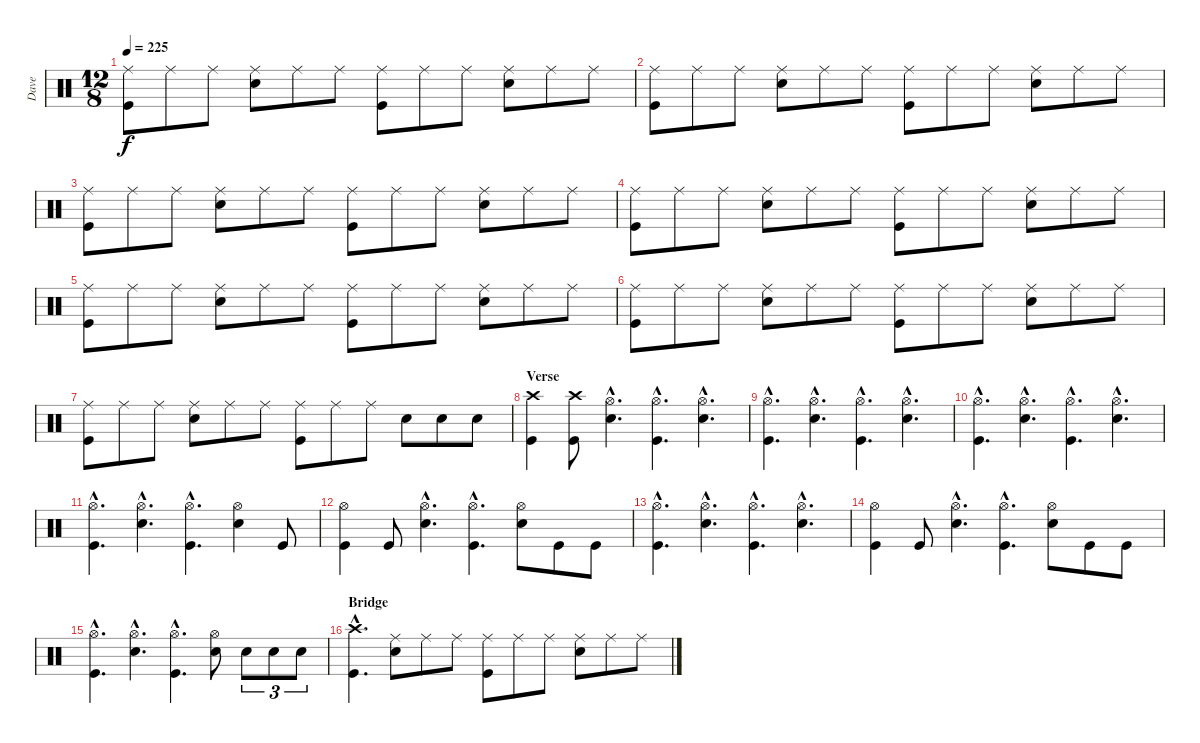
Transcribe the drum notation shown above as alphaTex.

\track ("Dave" "Dave") {instrument percussion}
\staff {score}
\articulation defaults
\ts (12 8)
\tempo 225
\clef neutral
\ks c
("Ride (middle)" "Kick (hit)").8{dy f} "Ride (middle)".8 "Ride (middle)".8 ("Ride (middle)" "Snare (hit) 2").8 "Ride (middle)".8 "Ride (middle)".8 ("Ride (middle)" "Kick (hit)").8 "Ride (middle)".8 "Ride (middle)".8 ("Ride (middle)" "Snare (hit) 2").8 "Ride (middle)".8 "Ride (middle)".8 |
("Ride (middle)" "Kick (hit)").8 "Ride (middle)".8 "Ride (middle)".8 ("Ride (middle)" "Snare (hit) 2").8 "Ride (middle)".8 "Ride (middle)".8 ("Ride (middle)" "Kick (hit)").8 "Ride (middle)".8 "Ride (middle)".8 ("Ride (middle)" "Snare (hit) 2").8 "Ride (middle)".8 "Ride (middle)".8 |
("Ride (middle)" "Kick (hit)").8 "Ride (middle)".8 "Ride (middle)".8 ("Ride (middle)" "Snare (hit) 2").8 "Ride (middle)".8 "Ride (middle)".8 ("Ride (middle)" "Kick (hit)").8 "Ride (middle)".8 "Ride (middle)".8 ("Ride (middle)" "Snare (hit) 2").8 "Ride (middle)".8 "Ride (middle)".8 |
("Ride (middle)" "Kick (hit)").8 "Ride (middle)".8 "Ride (middle)".8 ("Ride (middle)" "Snare (hit) 2").8 "Ride (middle)".8 "Ride (middle)".8 ("Ride (middle)" "Kick (hit)").8 "Ride (middle)".8 "Ride (middle)".8 ("Ride (middle)" "Snare (hit) 2").8 "Ride (middle)".8 "Ride (middle)".8 |
("Ride (middle)" "Kick (hit)").8 "Ride (middle)".8 "Ride (middle)".8 ("Ride (middle)" "Snare (hit) 2").8 "Ride (middle)".8 "Ride (middle)".8 ("Ride (middle)" "Kick (hit)").8 "Ride (middle)".8 "Ride (middle)".8 ("Ride (middle)" "Snare (hit) 2").8 "Ride (middle)".8 "Ride (middle)".8 |
("Ride (middle)" "Kick (hit)").8 "Ride (middle)".8 "Ride (middle)".8 ("Ride (middle)" "Snare (hit) 2").8 "Ride (middle)".8 "Ride (middle)".8 ("Ride (middle)" "Kick (hit)").8 "Ride (middle)".8 "Ride (middle)".8 ("Ride (middle)" "Snare (hit) 2").8 "Ride (middle)".8 "Ride (middle)".8 |
("Ride (middle)" "Kick (hit)").8 "Ride (middle)".8 "Ride (middle)".8 ("Ride (middle)" "Snare (hit) 2").8 "Ride (middle)".8 "Ride (middle)".8 ("Ride (middle)" "Kick (hit)").8 "Ride (middle)".8 "Ride (middle)".8 "Snare (hit) 2".8 "Snare (hit) 2".8 "Snare (hit) 2".8 |
\section ("" "Verse")
("Crash high (hit)" "Kick (hit)").4 ("Crash high (hit)" "Kick (hit)").8 ("Hi-Hat (open)"{hac} "Snare (hit) 2"{hac}).4{d} ("Hi-Hat (open)"{hac} "Kick (hit)"{hac}).4{d} ("Hi-Hat (open)"{hac} "Snare (hit) 2"{hac}).4{d} |
("Hi-Hat (open)"{hac} "Kick (hit)"{hac}).4{d} ("Hi-Hat (open)"{hac} "Snare (hit) 2"{hac}).4{d} ("Hi-Hat (open)"{hac} "Kick (hit)"{hac}).4{d} ("Hi-Hat (open)"{hac} "Snare (hit) 2"{hac}).4{d} |
("Hi-Hat (open)"{hac} "Kick (hit)"{hac}).4{d} ("Hi-Hat (open)"{hac} "Snare (hit) 2"{hac}).4{d} ("Hi-Hat (open)"{hac} "Kick (hit)"{hac}).4{d} ("Hi-Hat (open)"{hac} "Snare (hit) 2"{hac}).4{d} |
("Hi-Hat (open)"{hac} "Kick (hit)"{hac}).4{d} ("Hi-Hat (open)"{hac} "Snare (hit) 2"{hac}).4{d} ("Hi-Hat (open)"{hac} "Kick (hit)"{hac}).4{d} ("Hi-Hat (open)" "Snare (hit) 2").4 "Kick (hit)".8 |
("Hi-Hat (open)" "Kick (hit)").4 "Kick (hit)".8 ("Hi-Hat (open)"{hac} "Snare (hit) 2"{hac}).4{d} ("Hi-Hat (open)"{hac} "Kick (hit)"{hac}).4{d} ("Hi-Hat (open)" "Snare (hit) 2").8 "Kick (hit)".8 "Kick (hit)".8 |
("Hi-Hat (open)"{hac} "Kick (hit)"{hac}).4{d} ("Hi-Hat (open)"{hac} "Snare (hit) 2"{hac}).4{d} ("Hi-Hat (open)"{hac} "Kick (hit)"{hac}).4{d} ("Hi-Hat (open)"{hac} "Snare (hit) 2"{hac}).4{d} |
("Hi-Hat (open)" "Kick (hit)").4 "Kick (hit)".8 ("Hi-Hat (open)"{hac} "Snare (hit) 2"{hac}).4{d} ("Hi-Hat (open)"{hac} "Kick (hit)"{hac}).4{d} ("Hi-Hat (open)" "Snare (hit) 2").8 "Kick (hit)".8 "Kick (hit)".8 |
("Hi-Hat (open)"{hac} "Kick (hit)"{hac}).4{d} ("Hi-Hat (open)"{hac} "Snare (hit) 2"{hac}).4{d} ("Hi-Hat (open)"{hac} "Kick (hit)"{hac}).4{d} ("Hi-Hat (open)" "Snare (hit) 2").8 "Snare (hit) 2".8{tu (3 2)} "Snare (hit) 2".8{tu (3 2)} "Snare (hit) 2".8{tu (3 2)} |
\section ("" "Bridge")
("Crash high (hit)"{hac} "Kick (hit)"{hac}).4{d} ("Ride (middle)" "Snare (hit) 2").8 "Ride (middle)".8 "Ride (middle)".8 ("Ride (middle)" "Kick (hit)").8 "Ride (middle)".8 "Ride (middle)".8 ("Ride (middle)" "Snare (hit) 2").8 "Ride (middle)".8 "Ride (middle)".8
